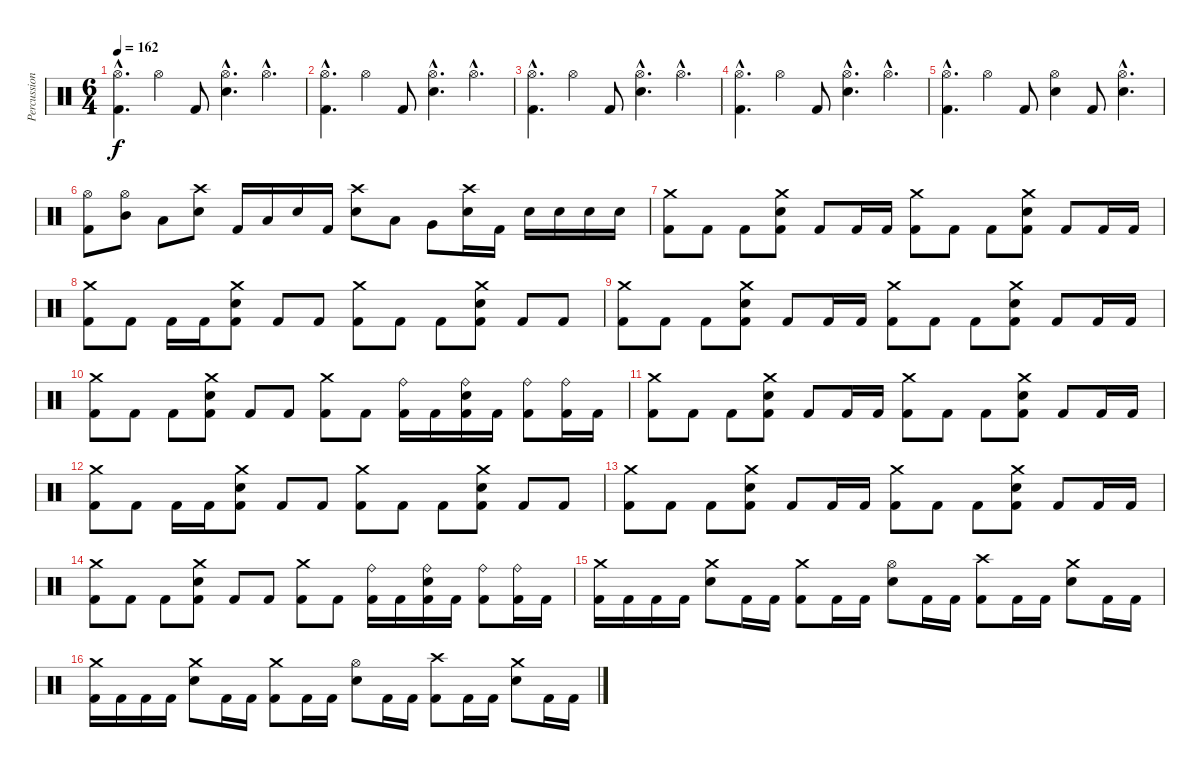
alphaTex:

\track ("Percussion" "Percussion") {instrument percussion}
\staff {score}
\articulation defaults
\ts (6 4)
\tempo 162
\clef neutral
\ks c
("Hi-Hat (open)"{hac} "Kick (hit) 2"{hac}).4{d dy f} "Hi-Hat (open)".4 "Kick (hit) 2".8 ("Hi-Hat (open)"{hac} "Electric Snare (hit)"{hac}).4{d} "Hi-Hat (open)"{hac}.4{d} |
("Hi-Hat (open)"{hac} "Kick (hit) 2"{hac}).4{d} "Hi-Hat (open)".4 "Kick (hit) 2".8 ("Hi-Hat (open)"{hac} "Electric Snare (hit)"{hac}).4{d} "Hi-Hat (open)"{hac}.4{d} |
("Hi-Hat (open)"{hac} "Kick (hit) 2"{hac}).4{d} "Hi-Hat (open)".4 "Kick (hit) 2".8 ("Hi-Hat (open)"{hac} "Electric Snare (hit)"{hac}).4{d} "Hi-Hat (open)"{hac}.4{d} |
("Hi-Hat (open)"{hac} "Kick (hit) 2"{hac}).4{d} "Hi-Hat (open)".4 "Kick (hit) 2".8 ("Hi-Hat (open)"{hac} "Electric Snare (hit)"{hac}).4{d} "Hi-Hat (open)"{hac}.4{d} |
("Hi-Hat (open)"{hac} "Kick (hit) 2"{hac}).4{d} "Hi-Hat (open)".4 "Kick (hit) 2".8 ("Hi-Hat (open)" "Electric Snare (hit)").4 "Kick (hit) 2".8 ("Hi-Hat (open)"{hac} "Electric Snare (hit)"{hac}).4{d} |
("Hi-Hat (open)" "Kick (hit) 2").8 ("Hi-Hat (open)" "Mid Tom (hit)").8 "Low Tom (hit)".8 ("Crash high (hit)" "Electric Snare (hit)").8 "Kick (hit) 2".16 "Low Tom (hit)".16 "Electric Snare (hit)".16 "Kick (hit) 2".16 ("Crash high (hit)" "Electric Snare (hit)").8 "Low Tom (hit)".8 "Very Low Tom (hit)".8 ("Crash high (hit)" "Electric Snare (hit)").16 "Kick (hit) 2".16 "Electric Snare (hit)".16 "Electric Snare (hit)".16 "Electric Snare (hit)".16 "Electric Snare (hit)".16 |
("Crash medium (hit)" "Kick (hit) 2").8 "Kick (hit) 2".8 "Kick (hit) 2".8 ("Crash medium (hit)" "Electric Snare (hit)" "Kick (hit) 2").8 "Kick (hit) 2".8 "Kick (hit) 2".16 "Kick (hit) 2".16 ("Crash medium (hit)" "Kick (hit) 2").8 "Kick (hit) 2".8 "Kick (hit) 2".8 ("Crash medium (hit)" "Electric Snare (hit)" "Kick (hit) 2").8 "Kick (hit) 2".8 "Kick (hit) 2".16 "Kick (hit) 2".16 |
("Crash medium (hit)" "Kick (hit) 2").8 "Kick (hit) 2".8 "Kick (hit) 2".16 "Kick (hit) 2".16 ("Crash medium (hit)" "Kick (hit) 2" "Electric Snare (hit)").8 "Kick (hit) 2".8 "Kick (hit) 2".8 ("Crash medium (hit)" "Kick (hit) 2").8 "Kick (hit) 2".8 "Kick (hit) 2".8 ("Crash medium (hit)" "Kick (hit) 2" "Electric Snare (hit)").8 "Kick (hit) 2".8 "Kick (hit) 2".8 |
("Crash medium (hit)" "Kick (hit) 2").8 "Kick (hit) 2".8 "Kick (hit) 2".8 ("Crash medium (hit)" "Electric Snare (hit)" "Kick (hit) 2").8 "Kick (hit) 2".8 "Kick (hit) 2".16 "Kick (hit) 2".16 ("Crash medium (hit)" "Kick (hit) 2").8 "Kick (hit) 2".8 "Kick (hit) 2".8 ("Crash medium (hit)" "Electric Snare (hit)" "Kick (hit) 2").8 "Kick (hit) 2".8 "Kick (hit) 2".16 "Kick (hit) 2".16 |
("Crash medium (hit)" "Kick (hit) 2").8 "Kick (hit) 2".8 "Kick (hit) 2".8 ("Crash medium (hit)" "Kick (hit) 2" "Electric Snare (hit)").8 "Kick (hit) 2".8 "Kick (hit) 2".8 ("Crash medium (hit)" "Kick (hit) 2").8 "Kick (hit) 2".8 ("Ride (bell)" "Kick (hit) 2").16 "Kick (hit) 2".16 ("Ride (bell)" "Kick (hit) 2" "Electric Snare (hit)").16 "Kick (hit) 2".16 ("Ride (bell)" "Kick (hit) 2").8 ("Ride (bell)" "Kick (hit) 2").16 "Kick (hit) 2".16 |
("Crash medium (hit)" "Kick (hit) 2").8 "Kick (hit) 2".8 "Kick (hit) 2".8 ("Crash medium (hit)" "Electric Snare (hit)" "Kick (hit) 2").8 "Kick (hit) 2".8 "Kick (hit) 2".16 "Kick (hit) 2".16 ("Crash medium (hit)" "Kick (hit) 2").8 "Kick (hit) 2".8 "Kick (hit) 2".8 ("Crash medium (hit)" "Electric Snare (hit)" "Kick (hit) 2").8 "Kick (hit) 2".8 "Kick (hit) 2".16 "Kick (hit) 2".16 |
("Crash medium (hit)" "Kick (hit) 2").8 "Kick (hit) 2".8 "Kick (hit) 2".16 "Kick (hit) 2".16 ("Crash medium (hit)" "Kick (hit) 2" "Electric Snare (hit)").8 "Kick (hit) 2".8 "Kick (hit) 2".8 ("Crash medium (hit)" "Kick (hit) 2").8 "Kick (hit) 2".8 "Kick (hit) 2".8 ("Crash medium (hit)" "Kick (hit) 2" "Electric Snare (hit)").8 "Kick (hit) 2".8 "Kick (hit) 2".8 |
("Crash medium (hit)" "Kick (hit) 2").8 "Kick (hit) 2".8 "Kick (hit) 2".8 ("Crash medium (hit)" "Electric Snare (hit)" "Kick (hit) 2").8 "Kick (hit) 2".8 "Kick (hit) 2".16 "Kick (hit) 2".16 ("Crash medium (hit)" "Kick (hit) 2").8 "Kick (hit) 2".8 "Kick (hit) 2".8 ("Crash medium (hit)" "Electric Snare (hit)" "Kick (hit) 2").8 "Kick (hit) 2".8 "Kick (hit) 2".16 "Kick (hit) 2".16 |
("Crash medium (hit)" "Kick (hit) 2").8 "Kick (hit) 2".8 "Kick (hit) 2".8 ("Crash medium (hit)" "Kick (hit) 2" "Electric Snare (hit)").8 "Kick (hit) 2".8 "Kick (hit) 2".8 ("Crash medium (hit)" "Kick (hit) 2").8 "Kick (hit) 2".8 ("Ride (bell)" "Kick (hit) 2").16 "Kick (hit) 2".16 ("Ride (bell)" "Kick (hit) 2" "Electric Snare (hit)").16 "Kick (hit) 2".16 ("Ride (bell)" "Kick (hit) 2").8 ("Ride (bell)" "Kick (hit) 2").16 "Kick (hit) 2".16 |
("Crash medium (hit)" "Kick (hit) 2").16 "Kick (hit) 2".16 "Kick (hit) 2".16 "Kick (hit) 2".16 ("Crash medium (hit)" "Electric Snare (hit)").8 "Kick (hit) 2".16 "Kick (hit) 2".16 ("Crash medium (hit)" "Kick (hit) 2").8 "Kick (hit) 2".16 "Kick (hit) 2".16 ("Hi-Hat (open)" "Electric Snare (hit)").8 "Kick (hit) 2".16 "Kick (hit) 2".16 ("Crash high (hit)" "Kick (hit) 2").8 "Kick (hit) 2".16 "Kick (hit) 2".16 ("Crash medium (hit)" "Electric Snare (hit)").8 "Kick (hit) 2".16 "Kick (hit) 2".16 |
("Crash medium (hit)" "Kick (hit) 2").16 "Kick (hit) 2".16 "Kick (hit) 2".16 "Kick (hit) 2".16 ("Crash medium (hit)" "Electric Snare (hit)").8 "Kick (hit) 2".16 "Kick (hit) 2".16 ("Crash medium (hit)" "Kick (hit) 2").8 "Kick (hit) 2".16 "Kick (hit) 2".16 ("Hi-Hat (open)" "Electric Snare (hit)").8 "Kick (hit) 2".16 "Kick (hit) 2".16 ("Crash high (hit)" "Kick (hit) 2").8 "Kick (hit) 2".16 "Kick (hit) 2".16 ("Crash medium (hit)" "Electric Snare (hit)").8 "Kick (hit) 2".16 "Kick (hit) 2".16
